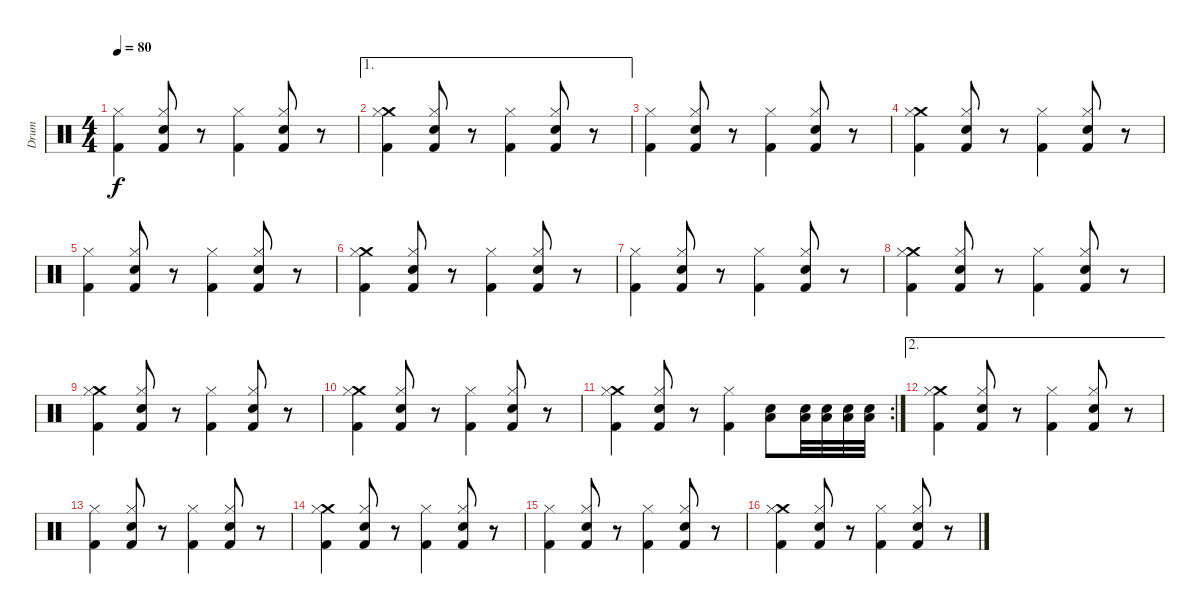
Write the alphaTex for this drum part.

\track ("Drum" "Drum") {instrument percussion}
\staff {score}
\articulation defaults
\ts (4 4)
\tempo 80
\clef neutral
\ks c
("Kick (hit) 2" "Hi-Hat (closed)").4{dy f} ("Hi-Hat (closed)" "Electric Snare (hit)" "Kick (hit) 2").8 r.8 ("Kick (hit) 2" "Hi-Hat (closed)").4 ("Hi-Hat (closed)" "Electric Snare (hit)" "Kick (hit) 2").8 r.8 |
\ae 1
("Crash medium (hit)" "Kick (hit) 2" "Hi-Hat (closed)").4 ("Hi-Hat (closed)" "Electric Snare (hit)" "Kick (hit) 2").8 r.8 ("Kick (hit) 2" "Hi-Hat (closed)").4 ("Hi-Hat (closed)" "Electric Snare (hit)" "Kick (hit) 2").8 r.8 |
("Kick (hit) 2" "Hi-Hat (closed)").4 ("Hi-Hat (closed)" "Electric Snare (hit)" "Kick (hit) 2").8 r.8 ("Kick (hit) 2" "Hi-Hat (closed)").4 ("Hi-Hat (closed)" "Electric Snare (hit)" "Kick (hit) 2").8 r.8 |
("Crash medium (hit)" "Kick (hit) 2" "Hi-Hat (closed)").4 ("Hi-Hat (closed)" "Electric Snare (hit)" "Kick (hit) 2").8 r.8 ("Kick (hit) 2" "Hi-Hat (closed)").4 ("Hi-Hat (closed)" "Electric Snare (hit)" "Kick (hit) 2").8 r.8 |
("Kick (hit) 2" "Hi-Hat (closed)").4 ("Hi-Hat (closed)" "Electric Snare (hit)" "Kick (hit) 2").8 r.8 ("Kick (hit) 2" "Hi-Hat (closed)").4 ("Hi-Hat (closed)" "Electric Snare (hit)" "Kick (hit) 2").8 r.8 |
("Crash medium (hit)" "Kick (hit) 2" "Hi-Hat (closed)").4 ("Hi-Hat (closed)" "Electric Snare (hit)" "Kick (hit) 2").8 r.8 ("Kick (hit) 2" "Hi-Hat (closed)").4 ("Hi-Hat (closed)" "Electric Snare (hit)" "Kick (hit) 2").8 r.8 |
("Kick (hit) 2" "Hi-Hat (closed)").4 ("Hi-Hat (closed)" "Electric Snare (hit)" "Kick (hit) 2").8 r.8 ("Kick (hit) 2" "Hi-Hat (closed)").4 ("Hi-Hat (closed)" "Electric Snare (hit)" "Kick (hit) 2").8 r.8 |
("Crash medium (hit)" "Kick (hit) 2" "Hi-Hat (closed)").4 ("Hi-Hat (closed)" "Electric Snare (hit)" "Kick (hit) 2").8 r.8 ("Kick (hit) 2" "Hi-Hat (closed)").4 ("Hi-Hat (closed)" "Electric Snare (hit)" "Kick (hit) 2").8 r.8 |
("Crash medium (hit)" "Kick (hit) 2" "Hi-Hat (closed)").4 ("Hi-Hat (closed)" "Electric Snare (hit)" "Kick (hit) 2").8 r.8 ("Kick (hit) 2" "Hi-Hat (closed)").4 ("Hi-Hat (closed)" "Electric Snare (hit)" "Kick (hit) 2").8 r.8 |
("Crash medium (hit)" "Kick (hit) 2" "Hi-Hat (closed)").4 ("Hi-Hat (closed)" "Electric Snare (hit)" "Kick (hit) 2").8 r.8 ("Kick (hit) 2" "Hi-Hat (closed)").4 ("Hi-Hat (closed)" "Electric Snare (hit)" "Kick (hit) 2").8 r.8 |
\rc 2
("Crash medium (hit)" "Kick (hit) 2" "Hi-Hat (closed)").4 ("Hi-Hat (closed)" "Electric Snare (hit)" "Kick (hit) 2").8 r.8 ("Kick (hit) 2" "Hi-Hat (closed)").4 ("Low Floor Tom (hit)" "Electric Snare (hit)").8 ("Low Floor Tom (hit)" "Electric Snare (hit)").32 ("Low Floor Tom (hit)" "Electric Snare (hit)").32 ("Low Floor Tom (hit)" "Electric Snare (hit)").32 ("Low Floor Tom (hit)" "Electric Snare (hit)").32 |
\ae 2
("Crash medium (hit)" "Kick (hit) 2" "Hi-Hat (closed)").4 ("Hi-Hat (closed)" "Electric Snare (hit)" "Kick (hit) 2").8 r.8 ("Kick (hit) 2" "Hi-Hat (closed)").4 ("Hi-Hat (closed)" "Electric Snare (hit)" "Kick (hit) 2").8 r.8 |
("Kick (hit) 2" "Hi-Hat (closed)").4 ("Hi-Hat (closed)" "Electric Snare (hit)" "Kick (hit) 2").8 r.8 ("Kick (hit) 2" "Hi-Hat (closed)").4 ("Hi-Hat (closed)" "Electric Snare (hit)" "Kick (hit) 2").8 r.8 |
("Crash medium (hit)" "Kick (hit) 2" "Hi-Hat (closed)").4 ("Hi-Hat (closed)" "Electric Snare (hit)" "Kick (hit) 2").8 r.8 ("Kick (hit) 2" "Hi-Hat (closed)").4 ("Hi-Hat (closed)" "Electric Snare (hit)" "Kick (hit) 2").8 r.8 |
("Kick (hit) 2" "Hi-Hat (closed)").4 ("Hi-Hat (closed)" "Electric Snare (hit)" "Kick (hit) 2").8 r.8 ("Kick (hit) 2" "Hi-Hat (closed)").4 ("Hi-Hat (closed)" "Electric Snare (hit)" "Kick (hit) 2").8 r.8 |
("Crash medium (hit)" "Kick (hit) 2" "Hi-Hat (closed)").4 ("Hi-Hat (closed)" "Electric Snare (hit)" "Kick (hit) 2").8 r.8 ("Kick (hit) 2" "Hi-Hat (closed)").4 ("Hi-Hat (closed)" "Electric Snare (hit)" "Kick (hit) 2").8 r.8
